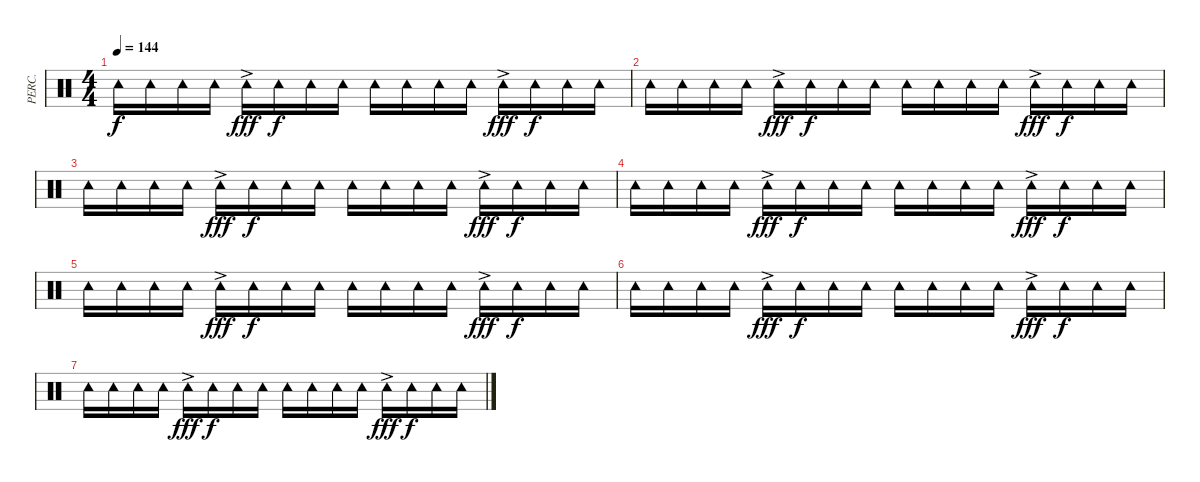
\track ("PERC." "PERC.") {instrument percussion}
\staff {score}
\articulation defaults
\ts (4 4)
\tempo 144
\clef neutral
\ks c "Tambourine (hit)".16{dy f} "Tambourine (hit)".16 "Tambourine (hit)".16 "Tambourine (hit)".16 "Tambourine (hit)"{ac}.16{dy fff} "Tambourine (hit)".16{dy f} "Tambourine (hit)".16 "Tambourine (hit)".16 "Tambourine (hit)".16 "Tambourine (hit)".16 "Tambourine (hit)".16 "Tambourine (hit)".16 "Tambourine (hit)"{ac}.16{dy fff} "Tambourine (hit)".16{dy f} "Tambourine (hit)".16 "Tambourine (hit)".16
|
"Tambourine (hit)".16 "Tambourine (hit)".16 "Tambourine (hit)".16 "Tambourine (hit)".16 "Tambourine (hit)"{ac}.16{dy fff} "Tambourine (hit)".16{dy f} "Tambourine (hit)".16 "Tambourine (hit)".16 "Tambourine (hit)".16 "Tambourine (hit)".16 "Tambourine (hit)".16 "Tambourine (hit)".16 "Tambourine (hit)"{ac}.16{dy fff} "Tambourine (hit)".16{dy f} "Tambourine (hit)".16 "Tambourine (hit)".16 |
"Tambourine (hit)".16 "Tambourine (hit)".16 "Tambourine (hit)".16 "Tambourine (hit)".16 "Tambourine (hit)"{ac}.16{dy fff} "Tambourine (hit)".16{dy f} "Tambourine (hit)".16 "Tambourine (hit)".16 "Tambourine (hit)".16 "Tambourine (hit)".16 "Tambourine (hit)".16 "Tambourine (hit)".16 "Tambourine (hit)"{ac}.16{dy fff} "Tambourine (hit)".16{dy f} "Tambourine (hit)".16 "Tambourine (hit)".16 |
"Tambourine (hit)".16 "Tambourine (hit)".16 "Tambourine (hit)".16 "Tambourine (hit)".16 "Tambourine (hit)"{ac}.16{dy fff} "Tambourine (hit)".16{dy f} "Tambourine (hit)".16 "Tambourine (hit)".16 "Tambourine (hit)".16 "Tambourine (hit)".16 "Tambourine (hit)".16 "Tambourine (hit)".16 "Tambourine (hit)"{ac}.16{dy fff} "Tambourine (hit)".16{dy f} "Tambourine (hit)".16 "Tambourine (hit)".16 |
"Tambourine (hit)".16 "Tambourine (hit)".16 "Tambourine (hit)".16 "Tambourine (hit)".16 "Tambourine (hit)"{ac}.16{dy fff} "Tambourine (hit)".16{dy f} "Tambourine (hit)".16 "Tambourine (hit)".16 "Tambourine (hit)".16 "Tambourine (hit)".16 "Tambourine (hit)".16 "Tambourine (hit)".16 "Tambourine (hit)"{ac}.16{dy fff} "Tambourine (hit)".16{dy f} "Tambourine (hit)".16 "Tambourine (hit)".16 |
"Tambourine (hit)".16 "Tambourine (hit)".16 "Tambourine (hit)".16 "Tambourine (hit)".16 "Tambourine (hit)"{ac}.16{dy fff} "Tambourine (hit)".16{dy f} "Tambourine (hit)".16 "Tambourine (hit)".16 "Tambourine (hit)".16 "Tambourine (hit)".16 "Tambourine (hit)".16 "Tambourine (hit)".16 "Tambourine (hit)"{ac}.16{dy fff} "Tambourine (hit)".16{dy f} "Tambourine (hit)".16 "Tambourine (hit)".16 |
"Tambourine (hit)".16 "Tambourine (hit)".16 "Tambourine (hit)".16 "Tambourine (hit)".16 "Tambourine (hit)"{ac}.16{dy fff} "Tambourine (hit)".16{dy f} "Tambourine (hit)".16 "Tambourine (hit)".16 "Tambourine (hit)".16 "Tambourine (hit)".16 "Tambourine (hit)".16 "Tambourine (hit)".16 "Tambourine (hit)"{ac}.16{dy fff} "Tambourine (hit)".16{dy f} "Tambourine (hit)".16 "Tambourine (hit)".16
